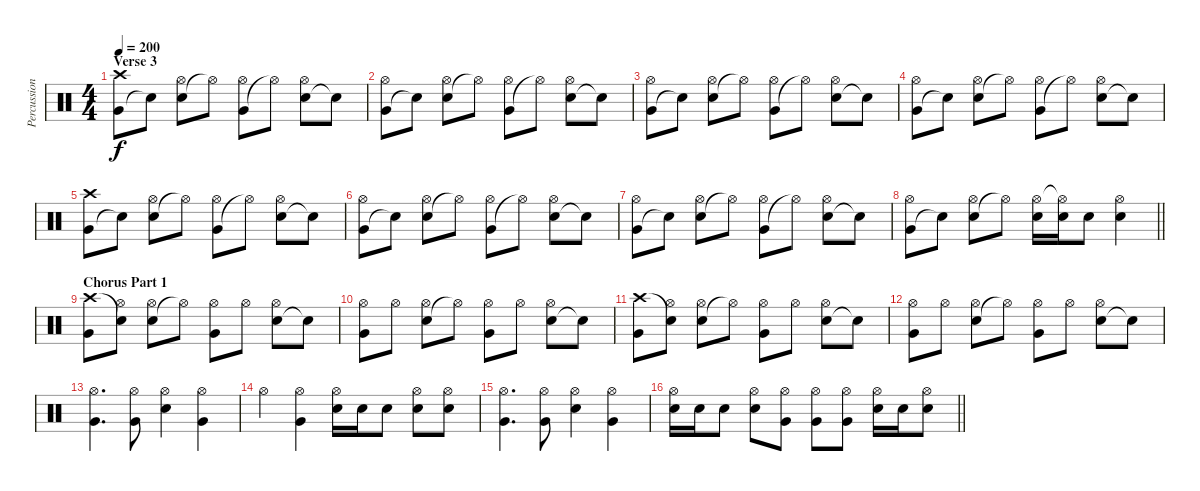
\track ("Percussion" "Percussion") {instrument percussion}
\staff {score}
\articulation defaults
\ts (4 4)
\section ("" "Verse 3")
\tempo 200
\clef neutral
\ks c
("Very Low Tom (hit)" "Crash high (hit)").8{dy f} "Snare (hit)"{t}.8 ("Snare (hit) 2" "Hi-Hat (open)").8 "Hi-Hat (open)"{t}.8 ("Very Low Tom (hit)" "Hi-Hat (open)").8 "Hi-Hat (open)"{t}.8 ("Snare (hit) 2" "Hi-Hat (open)").8 "Snare (hit)"{t}.8 |
("Very Low Tom (hit)" "Hi-Hat (open)").8 "Snare (hit)"{t}.8 ("Snare (hit) 2" "Hi-Hat (open)").8 "Hi-Hat (open)"{t}.8 ("Very Low Tom (hit)" "Hi-Hat (open)").8 "Hi-Hat (open)"{t}.8 ("Snare (hit) 2" "Hi-Hat (open)").8 "Snare (hit)"{t}.8 |
("Very Low Tom (hit)" "Hi-Hat (open)").8 "Snare (hit)"{t}.8 ("Snare (hit) 2" "Hi-Hat (open)").8 "Hi-Hat (open)"{t}.8 ("Very Low Tom (hit)" "Hi-Hat (open)").8 "Hi-Hat (open)"{t}.8 ("Snare (hit) 2" "Hi-Hat (open)").8 "Snare (hit)"{t}.8 |
("Very Low Tom (hit)" "Hi-Hat (open)").8 "Snare (hit)"{t}.8 ("Snare (hit) 2" "Hi-Hat (open)").8 "Hi-Hat (open)"{t}.8 ("Very Low Tom (hit)" "Hi-Hat (open)").8 "Hi-Hat (open)"{t}.8 ("Snare (hit) 2" "Hi-Hat (open)").8 "Snare (hit)"{t}.8 |
("Very Low Tom (hit)" "Crash high (hit)").8 "Snare (hit)"{t}.8 ("Snare (hit) 2" "Hi-Hat (open)").8 "Hi-Hat (open)"{t}.8 ("Very Low Tom (hit)" "Hi-Hat (open)").8 "Hi-Hat (open)"{t}.8 ("Snare (hit) 2" "Hi-Hat (open)").8 "Snare (hit)"{t}.8 |
("Very Low Tom (hit)" "Hi-Hat (open)").8 "Snare (hit)"{t}.8 ("Snare (hit) 2" "Hi-Hat (open)").8 "Hi-Hat (open)"{t}.8 ("Very Low Tom (hit)" "Hi-Hat (open)").8 "Hi-Hat (open)"{t}.8 ("Snare (hit) 2" "Hi-Hat (open)").8 "Snare (hit)"{t}.8 |
("Very Low Tom (hit)" "Hi-Hat (open)").8 "Snare (hit)"{t}.8 ("Snare (hit) 2" "Hi-Hat (open)").8 "Hi-Hat (open)"{t}.8 ("Very Low Tom (hit)" "Hi-Hat (open)").8 "Hi-Hat (open)"{t}.8 ("Snare (hit) 2" "Hi-Hat (open)").8 "Snare (hit)"{t}.8 |
\barLineRight lightlight
("Very Low Tom (hit)" "Hi-Hat (open)").8 "Snare (hit)"{t}.8 ("Snare (hit) 2" "Hi-Hat (open)").8 "Hi-Hat (open)"{t}.8 ("Electric Snare (hit)" "Hi-Hat (open)").16 ("Electric Snare (hit)" "Hi-Hat (open)"{t}).16 "Electric Snare (hit)".8 ("Snare (hit) 2" "Hi-Hat (open)").4 |
\section ("" "Chorus Part 1")
("Very Low Tom (hit)" "Crash high (hit)").8 ("Hi-Hat (open)" "Snare (hit)"{t}).8 ("Snare (hit) 2" "Hi-Hat (open)").8 "Hi-Hat (open)"{t}.8 ("Very Low Tom (hit)" "Hi-Hat (open)").8 "Hi-Hat (open)".8 ("Snare (hit) 2" "Hi-Hat (open)").8 "Snare (hit)"{t}.8 |
("Very Low Tom (hit)" "Hi-Hat (open)").8 "Hi-Hat (open)".8 ("Snare (hit) 2" "Hi-Hat (open)").8 "Hi-Hat (open)"{t}.8 ("Very Low Tom (hit)" "Hi-Hat (open)").8 "Hi-Hat (open)".8 ("Snare (hit) 2" "Hi-Hat (open)").8 "Snare (hit)"{t}.8 |
("Very Low Tom (hit)" "Crash high (hit)").8 ("Hi-Hat (open)" "Snare (hit)"{t}).8 ("Snare (hit) 2" "Hi-Hat (open)").8 "Hi-Hat (open)"{t}.8 ("Very Low Tom (hit)" "Hi-Hat (open)").8 "Hi-Hat (open)".8 ("Snare (hit) 2" "Hi-Hat (open)").8 "Snare (hit)"{t}.8 |
("Very Low Tom (hit)" "Hi-Hat (open)").8 "Hi-Hat (open)".8 ("Snare (hit) 2" "Hi-Hat (open)").8 "Hi-Hat (open)"{t}.8 ("Very Low Tom (hit)" "Hi-Hat (open)").8 "Hi-Hat (open)".8 ("Snare (hit) 2" "Hi-Hat (open)").8 "Snare (hit)"{t}.8 |
("Very Low Tom (hit)" "Hi-Hat (open)").4{d} ("Very Low Tom (hit)" "Hi-Hat (open)").8 ("Snare (hit) 2" "Hi-Hat (open)").4 ("Very Low Tom (hit)" "Hi-Hat (open)").4 |
"Hi-Hat (open)".4 ("Very Low Tom (hit)" "Hi-Hat (open)").4 ("Electric Snare (hit)" "Hi-Hat (open)").16 "Electric Snare (hit)".16 "Electric Snare (hit)".8 ("Snare (hit) 2" "Hi-Hat (open)").8 ("Snare (hit) 2" "Hi-Hat (open)").8 |
("Very Low Tom (hit)" "Hi-Hat (open)").4{d} ("Very Low Tom (hit)" "Hi-Hat (open)").8 ("Snare (hit) 2" "Hi-Hat (open)").4 ("Very Low Tom (hit)" "Hi-Hat (open)").4 |
\barLineRight lightlight
("Electric Snare (hit)" "Hi-Hat (open)").16 "Electric Snare (hit)".16 "Electric Snare (hit)".8 ("Snare (hit) 2" "Hi-Hat (open)").8 ("Very Low Tom (hit)" "Hi-Hat (open)").8 ("Very Low Tom (hit)" "Hi-Hat (open)").8 ("Very Low Tom (hit)" "Hi-Hat (open)").8 ("Snare (hit) 2" "Hi-Hat (open)").16 "Snare (hit) 2".16 ("Snare (hit) 2" "Hi-Hat (open)").8
